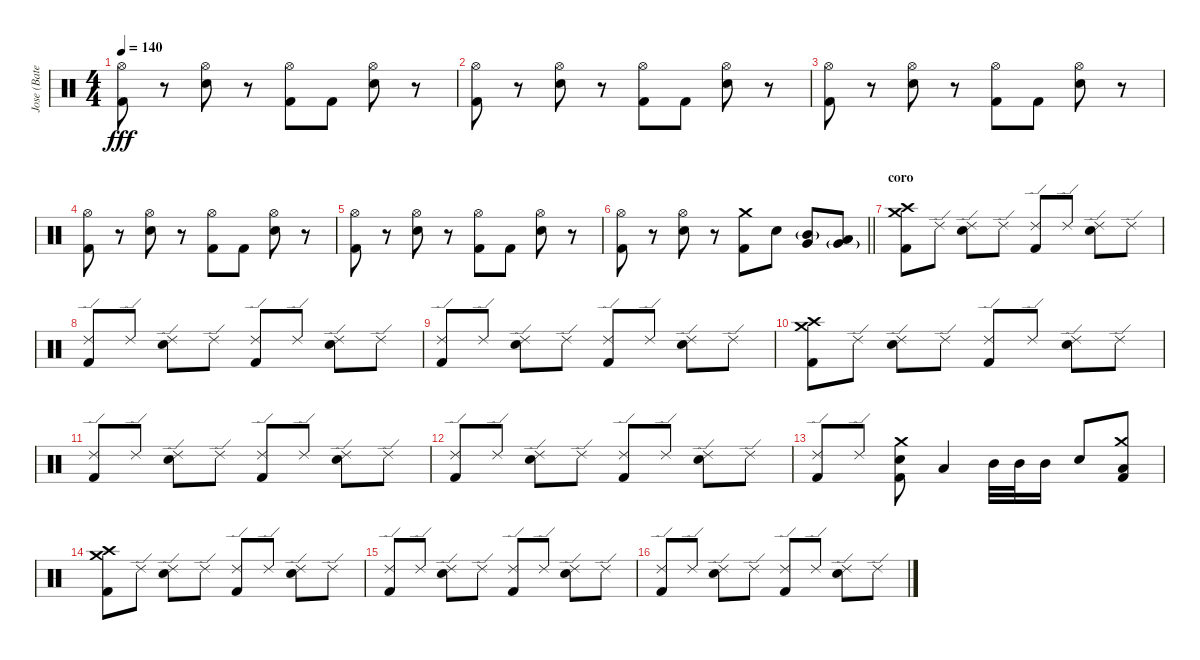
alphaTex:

\track ("Jose (Bateria)" "Jose (Bate") {instrument percussion}
\staff {score}
\articulation defaults
\ts (4 4)
\tempo 140
\clef neutral
\ks aminor
("Hi-Hat (open)" "Kick (hit) 2").8{dy fff} r.8 ("Hi-Hat (open)" "Snare (hit) 2").8 r.8 ("Hi-Hat (open)" "Kick (hit) 2").8 "Kick (hit) 2".8 ("Hi-Hat (open)" "Snare (hit) 2").8 r.8 |
("Hi-Hat (open)" "Kick (hit) 2").8 r.8 ("Hi-Hat (open)" "Snare (hit) 2").8 r.8 ("Hi-Hat (open)" "Kick (hit) 2").8 "Kick (hit) 2".8 ("Hi-Hat (open)" "Snare (hit) 2").8 r.8 |
("Hi-Hat (open)" "Kick (hit) 2").8 r.8 ("Hi-Hat (open)" "Snare (hit) 2").8 r.8 ("Hi-Hat (open)" "Kick (hit) 2").8 "Kick (hit) 2".8 ("Hi-Hat (open)" "Snare (hit) 2").8 r.8 |
("Hi-Hat (open)" "Kick (hit) 2").8 r.8 ("Hi-Hat (open)" "Snare (hit) 2").8 r.8 ("Hi-Hat (open)" "Kick (hit) 2").8 "Kick (hit) 2".8 ("Hi-Hat (open)" "Snare (hit) 2").8 r.8 |
("Hi-Hat (open)" "Kick (hit) 2").8 r.8 ("Hi-Hat (open)" "Snare (hit) 2").8 r.8 ("Hi-Hat (open)" "Kick (hit) 2").8 "Kick (hit) 2".8 ("Hi-Hat (open)" "Snare (hit) 2").8 r.8 |
\barLineRight lightlight
("Hi-Hat (open)" "Kick (hit) 2").8 r.8 ("Hi-Hat (open)" "Snare (hit) 2").8 r.8 ("Crash medium (hit)" "Kick (hit) 2").8 "Snare (hit) 2".8 ("Very Low Tom (hit)" "Mid Tom (hit)"{g}).8 ("Low Floor Tom (hit)" "Very Low Tom (hit)"{g}).8 |
\section ("" "coro")
("Crash medium (hit)" "Crash high (hit)" "Kick (hit) 2").8 "Ride (edge) 2".8 ("Ride (edge) 2" "Snare (hit) 2").8 "Ride (edge) 2".8 ("Ride (edge) 2" "Kick (hit) 2").8 "Ride (edge) 2".8 ("Ride (edge) 2" "Snare (hit) 2").8 "Ride (edge) 2".8 |
("Ride (edge) 2" "Kick (hit) 2").8 "Ride (edge) 2".8 ("Ride (edge) 2" "Snare (hit) 2").8 "Ride (edge) 2".8 ("Ride (edge) 2" "Kick (hit) 2").8 "Ride (edge) 2".8 ("Ride (edge) 2" "Snare (hit) 2").8 "Ride (edge) 2".8 |
("Ride (edge) 2" "Kick (hit) 2").8 "Ride (edge) 2".8 ("Ride (edge) 2" "Snare (hit) 2").8 "Ride (edge) 2".8 ("Ride (edge) 2" "Kick (hit) 2").8 "Ride (edge) 2".8 ("Ride (edge) 2" "Snare (hit) 2").8 "Ride (edge) 2".8 |
("Crash medium (hit)" "Crash high (hit)" "Kick (hit) 2").8 "Ride (edge) 2".8 ("Ride (edge) 2" "Snare (hit) 2").8 "Ride (edge) 2".8 ("Ride (edge) 2" "Kick (hit) 2").8 "Ride (edge) 2".8 ("Ride (edge) 2" "Snare (hit) 2").8 "Ride (edge) 2".8 |
("Ride (edge) 2" "Kick (hit) 2").8 "Ride (edge) 2".8 ("Ride (edge) 2" "Snare (hit) 2").8 "Ride (edge) 2".8 ("Ride (edge) 2" "Kick (hit) 2").8 "Ride (edge) 2".8 ("Ride (edge) 2" "Snare (hit) 2").8 "Ride (edge) 2".8 |
("Ride (edge) 2" "Kick (hit) 2").8 "Ride (edge) 2".8 ("Ride (edge) 2" "Snare (hit) 2").8 "Ride (edge) 2".8 ("Ride (edge) 2" "Kick (hit) 2").8 "Ride (edge) 2".8 ("Ride (edge) 2" "Snare (hit) 2").8 "Ride (edge) 2".8 |
("Ride (edge) 2" "Kick (hit) 2").8 "Ride (edge) 2".8 ("Crash medium (hit)" "Snare (hit) 2" "Kick (hit) 2").8 "Low Tom (hit)".4 "Mid Tom (hit)".32 "Mid Tom (hit)".32 "Mid Tom (hit)".16 "Snare (hit) 2".8 ("Crash medium (hit)" "Low Tom (hit)" "Kick (hit) 2").8 |
("Crash high (hit)" "Crash medium (hit)" "Kick (hit) 2").8 "Ride (edge) 2".8 ("Ride (edge) 2" "Snare (hit) 2").8 "Ride (edge) 2".8 ("Ride (edge) 2" "Kick (hit) 2").8 "Ride (edge) 2".8 ("Ride (edge) 2" "Snare (hit) 2").8 "Ride (edge) 2".8 |
("Ride (edge) 2" "Kick (hit) 2").8 "Ride (edge) 2".8 ("Ride (edge) 2" "Snare (hit) 2").8 "Ride (edge) 2".8 ("Ride (edge) 2" "Kick (hit) 2").8 "Ride (edge) 2".8 ("Ride (edge) 2" "Snare (hit) 2").8 "Ride (edge) 2".8 |
("Ride (edge) 2" "Kick (hit) 2").8 "Ride (edge) 2".8 ("Ride (edge) 2" "Snare (hit) 2").8 "Ride (edge) 2".8 ("Ride (edge) 2" "Kick (hit) 2").8 "Ride (edge) 2".8 ("Ride (edge) 2" "Snare (hit) 2").8 "Ride (edge) 2".8
